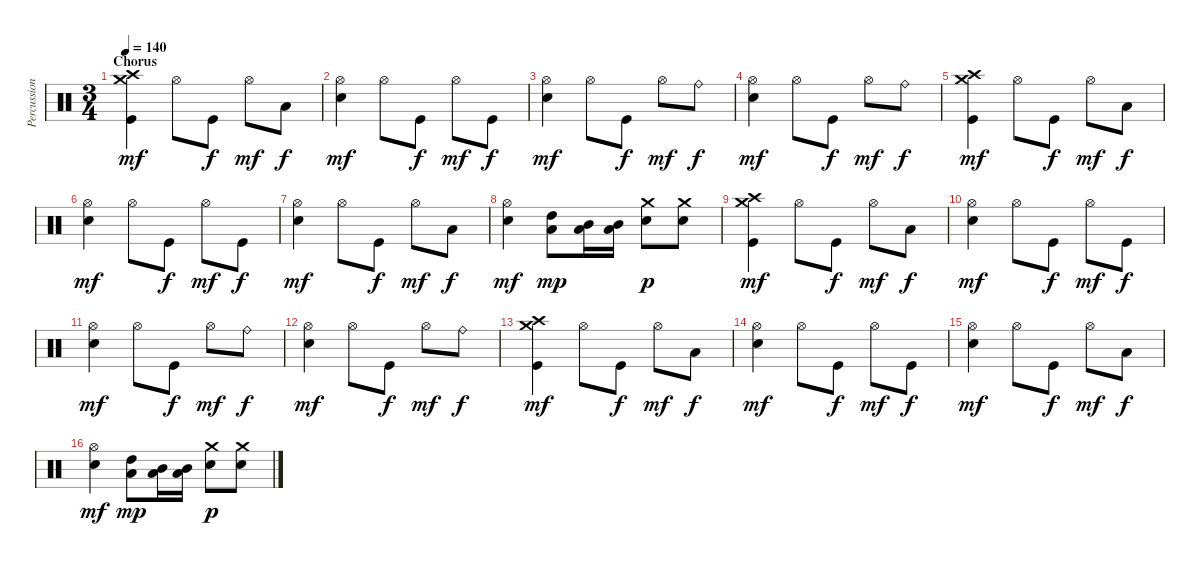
\track ("Percussion" "Percussion") {instrument percussion}
\staff {score}
\articulation defaults
\ts (3 4)
\section ("" "Chorus")
\tempo 140
\clef neutral
\ks c
("Kick (hit)" "Crash high (hit)" "Crash medium (hit)").4{dy mf} "Hi-Hat (open)".8 "Kick (hit)".8{dy f} "Hi-Hat (open)".8{dy mf} "Low Floor Tom (hit)".8{dy f} |
("Electric Snare (hit)" "Hi-Hat (open)").4{dy mf} "Hi-Hat (open)".8 "Kick (hit)".8{dy f} "Hi-Hat (open)".8{dy mf} "Kick (hit)".8{dy f} |
("Electric Snare (hit)" "Hi-Hat (open)").4{dy mf} "Hi-Hat (open)".8 "Kick (hit)".8{dy f} "Hi-Hat (open)".8{dy mf} "Ride (bell)".8{dy f} |
("Electric Snare (hit)" "Hi-Hat (open)").4{dy mf} "Hi-Hat (open)".8 "Kick (hit)".8{dy f} "Hi-Hat (open)".8{dy mf} "Ride (bell)".8{dy f} |
("Kick (hit)" "Crash high (hit)" "Crash medium (hit)").4{dy mf} "Hi-Hat (open)".8 "Kick (hit)".8{dy f} "Hi-Hat (open)".8{dy mf} "Low Floor Tom (hit)".8{dy f} |
("Electric Snare (hit)" "Hi-Hat (open)").4{dy mf} "Hi-Hat (open)".8 "Kick (hit)".8{dy f} "Hi-Hat (open)".8{dy mf} "Kick (hit)".8{dy f} |
("Electric Snare (hit)" "Hi-Hat (open)").4{dy mf} "Hi-Hat (open)".8 "Kick (hit)".8{dy f} "Hi-Hat (open)".8{dy mf} "Low Floor Tom (hit)".8{dy f} |
("Electric Snare (hit)" "Hi-Hat (open)").4{dy mf} ("Low Tom (hit)" "High Tom (hit)").8{dy mp} ("Low Tom (hit)" "Mid Tom (hit)").16 ("Low Tom (hit)" "Mid Tom (hit)").16 ("Electric Snare (hit)" "Crash medium (hit)").8{dy p} ("Electric Snare (hit)" "Crash medium (hit)").8 |
("Kick (hit)" "Crash high (hit)" "Crash medium (hit)").4{dy mf} "Hi-Hat (open)".8 "Kick (hit)".8{dy f} "Hi-Hat (open)".8{dy mf} "Low Floor Tom (hit)".8{dy f} |
("Electric Snare (hit)" "Hi-Hat (open)").4{dy mf} "Hi-Hat (open)".8 "Kick (hit)".8{dy f} "Hi-Hat (open)".8{dy mf} "Kick (hit)".8{dy f} |
("Electric Snare (hit)" "Hi-Hat (open)").4{dy mf} "Hi-Hat (open)".8 "Kick (hit)".8{dy f} "Hi-Hat (open)".8{dy mf} "Ride (bell)".8{dy f} |
("Electric Snare (hit)" "Hi-Hat (open)").4{dy mf} "Hi-Hat (open)".8 "Kick (hit)".8{dy f} "Hi-Hat (open)".8{dy mf} "Ride (bell)".8{dy f} |
("Kick (hit)" "Crash high (hit)" "Crash medium (hit)").4{dy mf} "Hi-Hat (open)".8 "Kick (hit)".8{dy f} "Hi-Hat (open)".8{dy mf} "Low Floor Tom (hit)".8{dy f} |
("Electric Snare (hit)" "Hi-Hat (open)").4{dy mf} "Hi-Hat (open)".8 "Kick (hit)".8{dy f} "Hi-Hat (open)".8{dy mf} "Kick (hit)".8{dy f} |
("Electric Snare (hit)" "Hi-Hat (open)").4{dy mf} "Hi-Hat (open)".8 "Kick (hit)".8{dy f} "Hi-Hat (open)".8{dy mf} "Low Floor Tom (hit)".8{dy f} |
("Electric Snare (hit)" "Hi-Hat (open)").4{dy mf} ("Low Tom (hit)" "High Tom (hit)").8{dy mp} ("Low Tom (hit)" "Mid Tom (hit)").16 ("Low Tom (hit)" "Mid Tom (hit)").16 ("Electric Snare (hit)" "Crash medium (hit)").8{dy p} ("Electric Snare (hit)" "Crash medium (hit)").8
